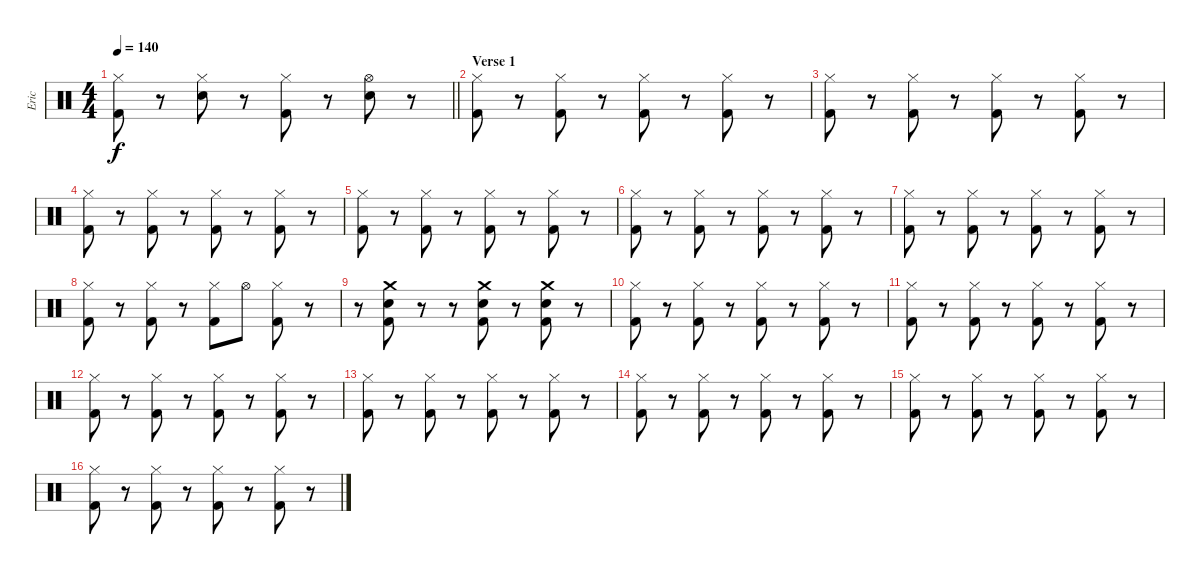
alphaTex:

\track ("Eric" "Eric") {instrument percussion}
\staff {score}
\articulation defaults
\ts (4 4)
\tempo 140
\clef neutral
\barLineRight lightlight
\ks c
("Hi-Hat (closed)" "Kick (hit) 2").8{dy f} r.8 ("Hi-Hat (closed)" "Electric Snare (hit)").8 r.8 ("Hi-Hat (closed)" "Kick (hit) 2").8 r.8 ("Hi-Hat (open)" "Electric Snare (hit)").8 r.8 |
\section ("" "Verse 1")
("Hi-Hat (closed)" "Kick (hit) 2").8 r.8 ("Hi-Hat (closed)" "Kick (hit) 2").8 r.8 ("Hi-Hat (closed)" "Kick (hit) 2").8 r.8 ("Hi-Hat (closed)" "Kick (hit) 2").8 r.8 |
("Hi-Hat (closed)" "Kick (hit) 2").8 r.8 ("Hi-Hat (closed)" "Kick (hit) 2").8 r.8 ("Hi-Hat (closed)" "Kick (hit) 2").8 r.8 ("Hi-Hat (closed)" "Kick (hit) 2").8 r.8 |
("Hi-Hat (closed)" "Kick (hit) 2").8 r.8 ("Hi-Hat (closed)" "Kick (hit) 2").8 r.8 ("Hi-Hat (closed)" "Kick (hit) 2").8 r.8 ("Hi-Hat (closed)" "Kick (hit) 2").8 r.8 |
("Hi-Hat (closed)" "Kick (hit) 2").8 r.8 ("Hi-Hat (closed)" "Kick (hit) 2").8 r.8 ("Hi-Hat (closed)" "Kick (hit) 2").8 r.8 ("Hi-Hat (closed)" "Kick (hit) 2").8 r.8 |
("Hi-Hat (closed)" "Kick (hit) 2").8 r.8 ("Hi-Hat (closed)" "Kick (hit) 2").8 r.8 ("Hi-Hat (closed)" "Kick (hit) 2").8 r.8 ("Hi-Hat (closed)" "Kick (hit) 2").8 r.8 |
("Hi-Hat (closed)" "Kick (hit) 2").8 r.8 ("Hi-Hat (closed)" "Kick (hit) 2").8 r.8 ("Hi-Hat (closed)" "Kick (hit) 2").8 r.8 ("Hi-Hat (closed)" "Kick (hit) 2").8 r.8 |
("Hi-Hat (closed)" "Kick (hit) 2").8 r.8 ("Hi-Hat (closed)" "Kick (hit) 2").8 r.8 ("Hi-Hat (closed)" "Kick (hit) 2").8 "Hi-Hat (open)".8 ("Hi-Hat (closed)" "Kick (hit) 2").8 r.8 |
r.8 ("Crash medium (hit)" "Electric Snare (hit)" "Kick (hit) 2").8 r.8 r.8 ("Crash medium (hit)" "Electric Snare (hit)" "Kick (hit) 2").8 r.8 ("Crash medium (hit)" "Electric Snare (hit)" "Kick (hit) 2").8 r.8 |
("Hi-Hat (closed)" "Kick (hit) 2").8 r.8 ("Hi-Hat (closed)" "Kick (hit) 2").8 r.8 ("Hi-Hat (closed)" "Kick (hit) 2").8 r.8 ("Hi-Hat (closed)" "Kick (hit) 2").8 r.8 |
("Hi-Hat (closed)" "Kick (hit) 2").8 r.8 ("Hi-Hat (closed)" "Kick (hit) 2").8 r.8 ("Hi-Hat (closed)" "Kick (hit) 2").8 r.8 ("Hi-Hat (closed)" "Kick (hit) 2").8 r.8 |
("Hi-Hat (closed)" "Kick (hit) 2").8 r.8 ("Hi-Hat (closed)" "Kick (hit) 2").8 r.8 ("Hi-Hat (closed)" "Kick (hit) 2").8 r.8 ("Hi-Hat (closed)" "Kick (hit) 2").8 r.8 |
("Hi-Hat (closed)" "Kick (hit) 2").8 r.8 ("Hi-Hat (closed)" "Kick (hit) 2").8 r.8 ("Hi-Hat (closed)" "Kick (hit) 2").8 r.8 ("Hi-Hat (closed)" "Kick (hit) 2").8 r.8 |
("Hi-Hat (closed)" "Kick (hit) 2").8 r.8 ("Hi-Hat (closed)" "Kick (hit) 2").8 r.8 ("Hi-Hat (closed)" "Kick (hit) 2").8 r.8 ("Hi-Hat (closed)" "Kick (hit) 2").8 r.8 |
("Hi-Hat (closed)" "Kick (hit) 2").8 r.8 ("Hi-Hat (closed)" "Kick (hit) 2").8 r.8 ("Hi-Hat (closed)" "Kick (hit) 2").8 r.8 ("Hi-Hat (closed)" "Kick (hit) 2").8 r.8 |
("Hi-Hat (closed)" "Kick (hit) 2").8 r.8 ("Hi-Hat (closed)" "Kick (hit) 2").8 r.8 ("Hi-Hat (closed)" "Kick (hit) 2").8 r.8 ("Hi-Hat (closed)" "Kick (hit) 2").8 r.8
